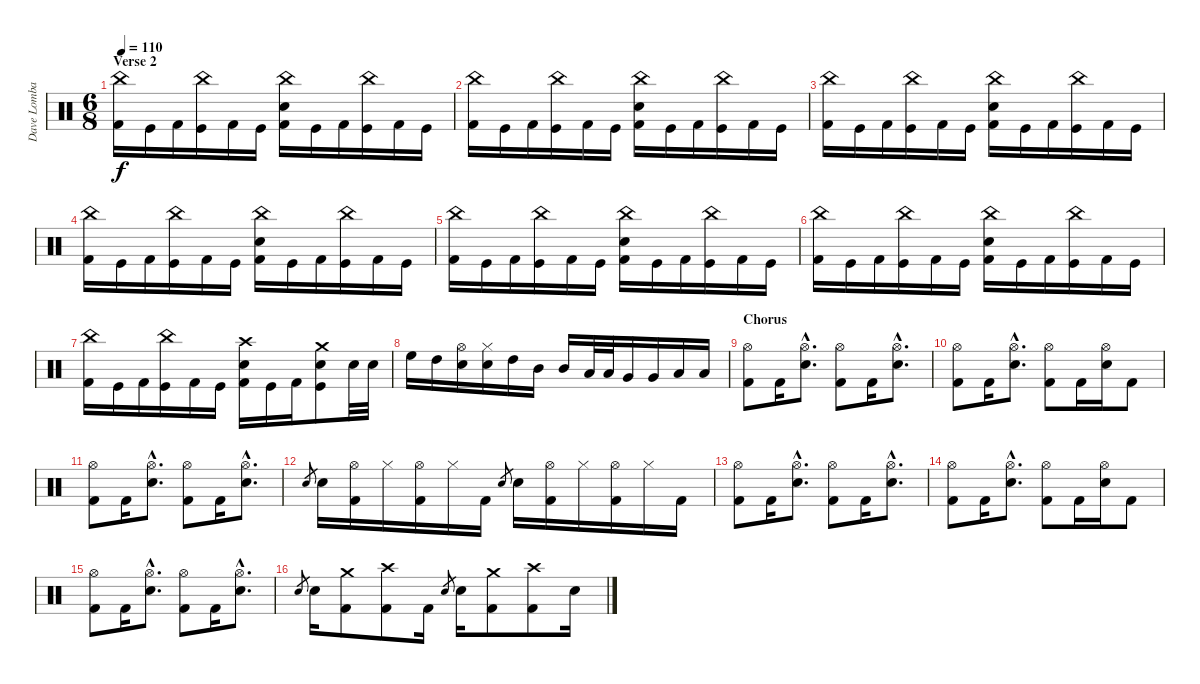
\track ("Dave Lombardo (drums)" "Dave Lomba") {instrument percussion}
\staff {score}
\articulation defaults
\ts (6 8)
\section ("" "Verse 2")
\tempo 110
\clef neutral
\ks c
("China (hit)" "Kick (hit) 2").16{dy f} "Kick (hit)".16 "Kick (hit) 2".16 ("China (hit)" "Kick (hit)").16 "Kick (hit) 2".16 "Kick (hit)".16 ("China (hit)" "Snare (hit) 2" "Kick (hit) 2").16 "Kick (hit)".16 "Kick (hit) 2".16 ("China (hit)" "Kick (hit)").16 "Kick (hit) 2".16 "Kick (hit)".16 |
("China (hit)" "Kick (hit) 2").16 "Kick (hit)".16 "Kick (hit) 2".16 ("China (hit)" "Kick (hit)").16 "Kick (hit) 2".16 "Kick (hit)".16 ("China (hit)" "Snare (hit) 2" "Kick (hit) 2").16 "Kick (hit)".16 "Kick (hit) 2".16 ("China (hit)" "Kick (hit)").16 "Kick (hit) 2".16 "Kick (hit)".16 |
("China (hit)" "Kick (hit) 2").16 "Kick (hit)".16 "Kick (hit) 2".16 ("China (hit)" "Kick (hit)").16 "Kick (hit) 2".16 "Kick (hit)".16 ("China (hit)" "Snare (hit) 2" "Kick (hit) 2").16 "Kick (hit)".16 "Kick (hit) 2".16 ("China (hit)" "Kick (hit)").16 "Kick (hit) 2".16 "Kick (hit)".16 |
("China (hit)" "Kick (hit) 2").16 "Kick (hit)".16 "Kick (hit) 2".16 ("China (hit)" "Kick (hit)").16 "Kick (hit) 2".16 "Kick (hit)".16 ("China (hit)" "Snare (hit) 2" "Kick (hit) 2").16 "Kick (hit)".16 "Kick (hit) 2".16 ("China (hit)" "Kick (hit)").16 "Kick (hit) 2".16 "Kick (hit)".16 |
("China (hit)" "Kick (hit) 2").16 "Kick (hit)".16 "Kick (hit) 2".16 ("China (hit)" "Kick (hit)").16 "Kick (hit) 2".16 "Kick (hit)".16 ("China (hit)" "Snare (hit) 2" "Kick (hit) 2").16 "Kick (hit)".16 "Kick (hit) 2".16 ("China (hit)" "Kick (hit)").16 "Kick (hit) 2".16 "Kick (hit)".16 |
("China (hit)" "Kick (hit) 2").16 "Kick (hit)".16 "Kick (hit) 2".16 ("China (hit)" "Kick (hit)").16 "Kick (hit) 2".16 "Kick (hit)".16 ("China (hit)" "Snare (hit) 2" "Kick (hit) 2").16 "Kick (hit)".16 "Kick (hit) 2".16 ("China (hit)" "Kick (hit)").16 "Kick (hit) 2".16 "Kick (hit)".16 |
("China (hit)" "Kick (hit) 2").16 "Kick (hit)".16 "Kick (hit) 2".16 ("China (hit)" "Kick (hit)").16 "Kick (hit) 2".16 "Kick (hit)".16 ("Crash high (hit)" "Snare (hit) 2" "Kick (hit) 2").16 "Kick (hit)".16 "Kick (hit) 2".16 ("Crash medium (hit)" "Snare (hit) 2" "Kick (hit)").8 "Snare (hit) 2".32 "Snare (hit) 2".32 |
"High Floor Tom (hit)".16 "High Tom (hit)".16 ("Hi-Hat (open)" "Snare (hit) 2").16 ("Hi-Hat (closed)" "Snare (hit) 2").16 "High Tom (hit)".16 "Mid Tom (hit)".16 "Mid Tom (hit)".16 "Low Tom (hit)".32 "Low Tom (hit)".32 "Very Low Tom (hit)".16 "Very Low Tom (hit)".16 "Low Floor Tom (hit)".16 "Low Floor Tom (hit)".16 |
\section ("" "Chorus")
("Hi-Hat (open)" "Kick (hit) 2").8 "Kick (hit) 2".16 ("Hi-Hat (open)"{hac} "Snare (hit) 2"{hac}).8{d} ("Hi-Hat (open)" "Kick (hit) 2").8 "Kick (hit) 2".16 ("Hi-Hat (open)"{hac} "Snare (hit) 2"{hac}).8{d} |
("Hi-Hat (open)" "Kick (hit) 2").8 "Kick (hit) 2".16 ("Hi-Hat (open)"{hac} "Snare (hit) 2"{hac}).8{d} ("Hi-Hat (open)" "Kick (hit) 2").8 "Kick (hit) 2".16 ("Hi-Hat (open)" "Snare (hit) 2").16 "Kick (hit) 2".8 |
("Hi-Hat (open)" "Kick (hit) 2").8 "Kick (hit) 2".16 ("Hi-Hat (open)"{hac} "Snare (hit) 2"{hac}).8{d} ("Hi-Hat (open)" "Kick (hit) 2").8 "Kick (hit) 2".16 ("Hi-Hat (open)"{hac} "Snare (hit) 2"{hac}).8{d} |
"Snare (hit) 2".8{gr} "Snare (hit) 2".16 ("Hi-Hat (open)" "Kick (hit) 2").16 "Hi-Hat (closed)".16 ("Hi-Hat (open)" "Kick (hit) 2").16 "Hi-Hat (closed)".16 "Kick (hit) 2".16 "Snare (hit) 2".8{gr} "Snare (hit) 2".16 ("Hi-Hat (open)" "Kick (hit) 2").16 "Hi-Hat (closed)".16 ("Hi-Hat (open)" "Kick (hit) 2").16 "Hi-Hat (closed)".16 "Kick (hit) 2".16 |
("Hi-Hat (open)" "Kick (hit) 2").8 "Kick (hit) 2".16 ("Hi-Hat (open)"{hac} "Snare (hit) 2"{hac}).8{d} ("Hi-Hat (open)" "Kick (hit) 2").8 "Kick (hit) 2".16 ("Hi-Hat (open)"{hac} "Snare (hit) 2"{hac}).8{d} |
("Hi-Hat (open)" "Kick (hit) 2").8 "Kick (hit) 2".16 ("Hi-Hat (open)"{hac} "Snare (hit) 2"{hac}).8{d} ("Hi-Hat (open)" "Kick (hit) 2").8 "Kick (hit) 2".16 ("Hi-Hat (open)" "Snare (hit) 2").16 "Kick (hit) 2".8 |
("Hi-Hat (open)" "Kick (hit) 2").8 "Kick (hit) 2".16 ("Hi-Hat (open)"{hac} "Snare (hit) 2"{hac}).8{d} ("Hi-Hat (open)" "Kick (hit) 2").8 "Kick (hit) 2".16 ("Hi-Hat (open)"{hac} "Snare (hit) 2"{hac}).8{d} |
"Snare (hit) 2".8{gr} "Snare (hit) 2".16 ("Crash medium (hit)" "Kick (hit) 2").8 ("Crash high (hit)" "Kick (hit) 2").8 "Kick (hit) 2".16 "Snare (hit) 2".8{gr} "Snare (hit) 2".16 ("Crash medium (hit)" "Kick (hit) 2").8 ("Crash high (hit)" "Kick (hit) 2").8 "Snare (hit) 2".16
